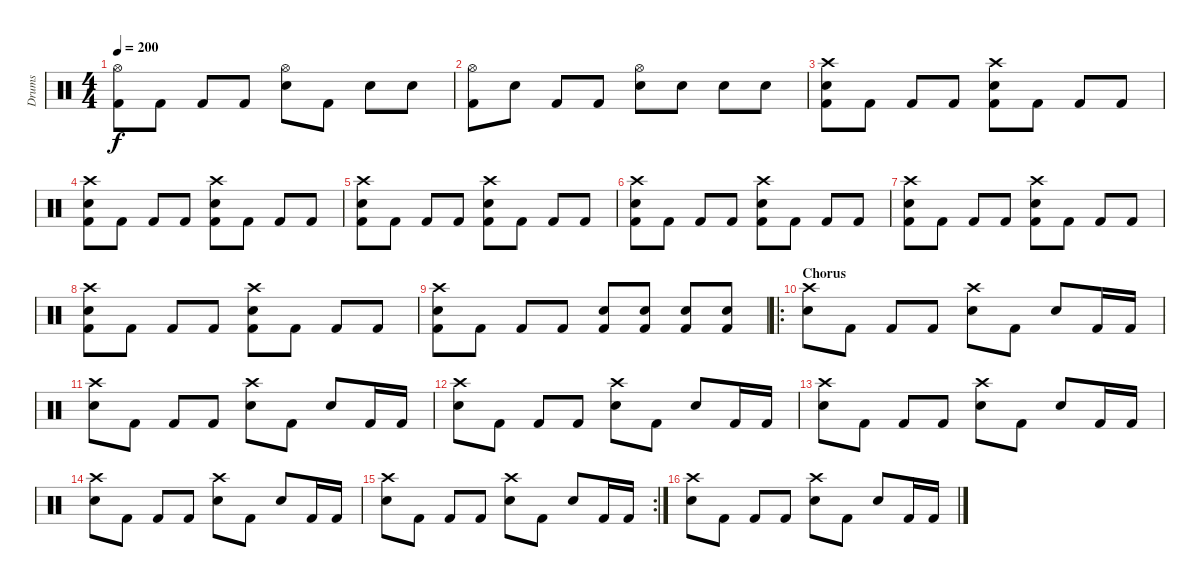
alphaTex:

\track ("Drums" "Drums") {instrument percussion}
\staff {score}
\articulation defaults
\ts (4 4)
\tempo 200
\clef neutral
\ks c
("Hi-Hat (open)" "Kick (hit) 2").8{dy f} "Kick (hit) 2".8 "Kick (hit) 2".8 "Kick (hit) 2".8 ("Hi-Hat (open)" "Electric Snare (hit)").8 "Kick (hit) 2".8 "Electric Snare (hit)".8 "Electric Snare (hit)".8 |
("Hi-Hat (open)" "Kick (hit) 2").8 "Electric Snare (hit)".8 "Kick (hit) 2".8 "Kick (hit) 2".8 ("Hi-Hat (open)" "Electric Snare (hit)").8 "Electric Snare (hit)".8 "Electric Snare (hit)".8 "Electric Snare (hit)".8 |
("Crash high (hit)" "Electric Snare (hit)" "Kick (hit) 2").8 "Kick (hit) 2".8 "Kick (hit) 2".8 "Kick (hit) 2".8 ("Crash high (hit)" "Electric Snare (hit)" "Kick (hit) 2").8 "Kick (hit) 2".8 "Kick (hit) 2".8 "Kick (hit) 2".8 |
("Crash high (hit)" "Electric Snare (hit)" "Kick (hit) 2").8 "Kick (hit) 2".8 "Kick (hit) 2".8 "Kick (hit) 2".8 ("Crash high (hit)" "Electric Snare (hit)" "Kick (hit) 2").8 "Kick (hit) 2".8 "Kick (hit) 2".8 "Kick (hit) 2".8 |
("Crash high (hit)" "Electric Snare (hit)" "Kick (hit) 2").8 "Kick (hit) 2".8 "Kick (hit) 2".8 "Kick (hit) 2".8 ("Crash high (hit)" "Electric Snare (hit)" "Kick (hit) 2").8 "Kick (hit) 2".8 "Kick (hit) 2".8 "Kick (hit) 2".8 |
("Crash high (hit)" "Electric Snare (hit)" "Kick (hit) 2").8 "Kick (hit) 2".8 "Kick (hit) 2".8 "Kick (hit) 2".8 ("Crash high (hit)" "Electric Snare (hit)" "Kick (hit) 2").8 "Kick (hit) 2".8 "Kick (hit) 2".8 "Kick (hit) 2".8 |
("Crash high (hit)" "Electric Snare (hit)" "Kick (hit) 2").8 "Kick (hit) 2".8 "Kick (hit) 2".8 "Kick (hit) 2".8 ("Crash high (hit)" "Electric Snare (hit)" "Kick (hit) 2").8 "Kick (hit) 2".8 "Kick (hit) 2".8 "Kick (hit) 2".8 |
("Crash high (hit)" "Electric Snare (hit)" "Kick (hit) 2").8 "Kick (hit) 2".8 "Kick (hit) 2".8 "Kick (hit) 2".8 ("Crash high (hit)" "Electric Snare (hit)" "Kick (hit) 2").8 "Kick (hit) 2".8 "Kick (hit) 2".8 "Kick (hit) 2".8 |
("Crash high (hit)" "Electric Snare (hit)" "Kick (hit) 2").8 "Kick (hit) 2".8 "Kick (hit) 2".8 "Kick (hit) 2".8 ("Electric Snare (hit)" "Kick (hit) 2").8 ("Electric Snare (hit)" "Kick (hit) 2").8 ("Electric Snare (hit)" "Kick (hit) 2").8 ("Electric Snare (hit)" "Kick (hit) 2").8 |
\ro
\section ("" "Chorus")
("Crash high (hit)" "Electric Snare (hit)").8 "Kick (hit) 2".8 "Kick (hit) 2".8 "Kick (hit) 2".8 ("Crash high (hit)" "Electric Snare (hit)").8 "Kick (hit) 2".8 "Electric Snare (hit)".8 "Kick (hit) 2".16 "Kick (hit) 2".16 |
("Crash high (hit)" "Electric Snare (hit)").8 "Kick (hit) 2".8 "Kick (hit) 2".8 "Kick (hit) 2".8 ("Crash high (hit)" "Electric Snare (hit)").8 "Kick (hit) 2".8 "Electric Snare (hit)".8 "Kick (hit) 2".16 "Kick (hit) 2".16 |
("Crash high (hit)" "Electric Snare (hit)").8 "Kick (hit) 2".8 "Kick (hit) 2".8 "Kick (hit) 2".8 ("Crash high (hit)" "Electric Snare (hit)").8 "Kick (hit) 2".8 "Electric Snare (hit)".8 "Kick (hit) 2".16 "Kick (hit) 2".16 |
("Crash high (hit)" "Electric Snare (hit)").8 "Kick (hit) 2".8 "Kick (hit) 2".8 "Kick (hit) 2".8 ("Crash high (hit)" "Electric Snare (hit)").8 "Kick (hit) 2".8 "Electric Snare (hit)".8 "Kick (hit) 2".16 "Kick (hit) 2".16 |
("Crash high (hit)" "Electric Snare (hit)").8 "Kick (hit) 2".8 "Kick (hit) 2".8 "Kick (hit) 2".8 ("Crash high (hit)" "Electric Snare (hit)").8 "Kick (hit) 2".8 "Electric Snare (hit)".8 "Kick (hit) 2".16 "Kick (hit) 2".16 |
\rc 2
("Crash high (hit)" "Electric Snare (hit)").8 "Kick (hit) 2".8 "Kick (hit) 2".8 "Kick (hit) 2".8 ("Crash high (hit)" "Electric Snare (hit)").8 "Kick (hit) 2".8 "Electric Snare (hit)".8 "Kick (hit) 2".16 "Kick (hit) 2".16 |
("Crash high (hit)" "Electric Snare (hit)").8 "Kick (hit) 2".8 "Kick (hit) 2".8 "Kick (hit) 2".8 ("Crash high (hit)" "Electric Snare (hit)").8 "Kick (hit) 2".8 "Electric Snare (hit)".8 "Kick (hit) 2".16 "Kick (hit) 2".16
